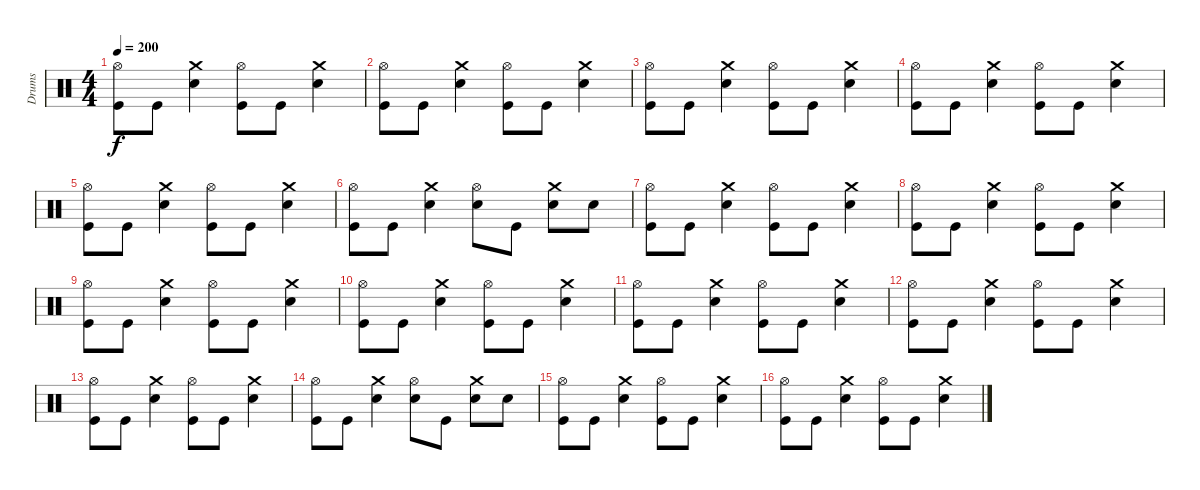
\track ("Drums" "Drums") {instrument percussion}
\staff {score}
\articulation defaults
\ts (4 4)
\tempo 200
\clef neutral
\ks c
("Hi-Hat (open)" "Kick (hit)").8{dy f} "Kick (hit)".8 ("Crash medium (hit)" "Electric Snare (hit)").4 ("Hi-Hat (open)" "Kick (hit)").8 "Kick (hit)".8 ("Crash medium (hit)" "Electric Snare (hit)").4 |
("Hi-Hat (open)" "Kick (hit)").8 "Kick (hit)".8 ("Crash medium (hit)" "Electric Snare (hit)").4 ("Hi-Hat (open)" "Kick (hit)").8 "Kick (hit)".8 ("Crash medium (hit)" "Electric Snare (hit)").4 |
("Hi-Hat (open)" "Kick (hit)").8 "Kick (hit)".8 ("Crash medium (hit)" "Electric Snare (hit)").4 ("Hi-Hat (open)" "Kick (hit)").8 "Kick (hit)".8 ("Crash medium (hit)" "Electric Snare (hit)").4 |
("Hi-Hat (open)" "Kick (hit)").8 "Kick (hit)".8 ("Crash medium (hit)" "Electric Snare (hit)").4 ("Hi-Hat (open)" "Kick (hit)").8 "Kick (hit)".8 ("Crash medium (hit)" "Electric Snare (hit)").4 |
("Hi-Hat (open)" "Kick (hit)").8 "Kick (hit)".8 ("Crash medium (hit)" "Electric Snare (hit)").4 ("Hi-Hat (open)" "Kick (hit)").8 "Kick (hit)".8 ("Crash medium (hit)" "Electric Snare (hit)").4 |
("Hi-Hat (open)" "Kick (hit)").8 "Kick (hit)".8 ("Crash medium (hit)" "Electric Snare (hit)").4 ("Hi-Hat (open)" "Electric Snare (hit)").8 "Kick (hit)".8 ("Crash medium (hit)" "Electric Snare (hit)").8 "Electric Snare (hit)".8 |
("Hi-Hat (open)" "Kick (hit)").8 "Kick (hit)".8 ("Crash medium (hit)" "Electric Snare (hit)").4 ("Hi-Hat (open)" "Kick (hit)").8 "Kick (hit)".8 ("Crash medium (hit)" "Electric Snare (hit)").4 |
("Hi-Hat (open)" "Kick (hit)").8 "Kick (hit)".8 ("Crash medium (hit)" "Electric Snare (hit)").4 ("Hi-Hat (open)" "Kick (hit)").8 "Kick (hit)".8 ("Crash medium (hit)" "Electric Snare (hit)").4 |
("Hi-Hat (open)" "Kick (hit)").8 "Kick (hit)".8 ("Crash medium (hit)" "Electric Snare (hit)").4 ("Hi-Hat (open)" "Kick (hit)").8 "Kick (hit)".8 ("Crash medium (hit)" "Electric Snare (hit)").4 |
("Hi-Hat (open)" "Kick (hit)").8 "Kick (hit)".8 ("Crash medium (hit)" "Electric Snare (hit)").4 ("Hi-Hat (open)" "Kick (hit)").8 "Kick (hit)".8 ("Crash medium (hit)" "Electric Snare (hit)").4 |
("Hi-Hat (open)" "Kick (hit)").8 "Kick (hit)".8 ("Crash medium (hit)" "Electric Snare (hit)").4 ("Hi-Hat (open)" "Kick (hit)").8 "Kick (hit)".8 ("Crash medium (hit)" "Electric Snare (hit)").4 |
("Hi-Hat (open)" "Kick (hit)").8 "Kick (hit)".8 ("Crash medium (hit)" "Electric Snare (hit)").4 ("Hi-Hat (open)" "Kick (hit)").8 "Kick (hit)".8 ("Crash medium (hit)" "Electric Snare (hit)").4 |
("Hi-Hat (open)" "Kick (hit)").8 "Kick (hit)".8 ("Crash medium (hit)" "Electric Snare (hit)").4 ("Hi-Hat (open)" "Kick (hit)").8 "Kick (hit)".8 ("Crash medium (hit)" "Electric Snare (hit)").4 |
("Hi-Hat (open)" "Kick (hit)").8 "Kick (hit)".8 ("Crash medium (hit)" "Electric Snare (hit)").4 ("Hi-Hat (open)" "Electric Snare (hit)").8 "Kick (hit)".8 ("Crash medium (hit)" "Electric Snare (hit)").8 "Electric Snare (hit)".8 |
("Hi-Hat (open)" "Kick (hit)").8 "Kick (hit)".8 ("Crash medium (hit)" "Electric Snare (hit)").4 ("Hi-Hat (open)" "Kick (hit)").8 "Kick (hit)".8 ("Crash medium (hit)" "Electric Snare (hit)").4 |
("Hi-Hat (open)" "Kick (hit)").8 "Kick (hit)".8 ("Crash medium (hit)" "Electric Snare (hit)").4 ("Hi-Hat (open)" "Kick (hit)").8 "Kick (hit)".8 ("Crash medium (hit)" "Electric Snare (hit)").4
